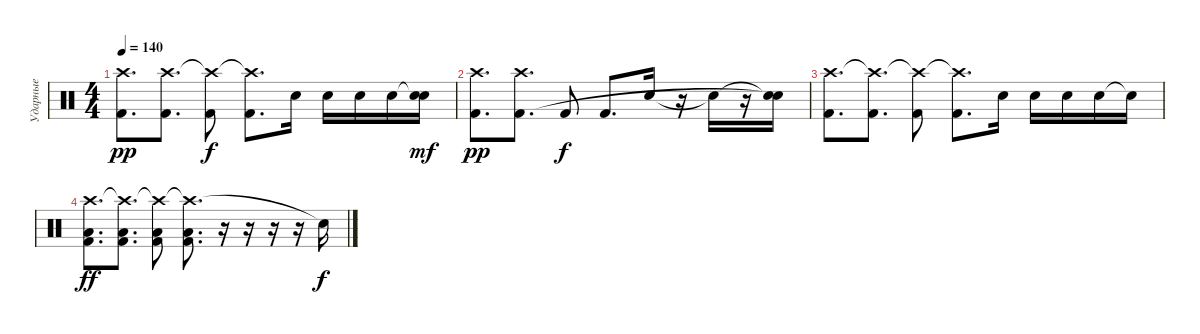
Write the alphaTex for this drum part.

\track ("Ударные" "Ударные") {instrument percussion}
\staff {score}
\articulation defaults
\ts (4 4)
\tempo 140
\clef neutral
\ks c
("Crash high (hit)" "Kick (hit) 2").8{d dy pp} ("Crash high (hit)" "Kick (hit) 2").8{d} ("Crash high (hit)"{t} "Kick (hit) 2").8{dy f} ("Crash high (hit)"{t} "Kick (hit) 2").8{d} "Electric Snare (hit)".16 "Electric Snare (hit)".16 "Electric Snare (hit)".16 "Electric Snare (hit)".16 ("Snare (hit)"{t} "Electric Snare (hit)").16{dy mf} |
("Crash high (hit)" "Kick (hit) 2").8{d dy pp} ("Crash high (hit)" "Kick (hit) 2").8{d} "Kick (hit) 2".8{dy f} "Kick (hit) 2".8{d} "Electric Snare (hit)".16 r.16 "Electric Snare (hit)"{t}.16 r.16 ("Snare (hit)"{t} "Electric Snare (hit)"{t}).16 |
("Crash high (hit)" "Kick (hit) 2").8{d} ("Crash high (hit)"{t} "Kick (hit) 2").8{d} ("Crash high (hit)"{t} "Kick (hit) 2").8 ("Crash high (hit)"{t} "Kick (hit) 2").8{d} "Electric Snare (hit)".16 "Electric Snare (hit)".16 "Electric Snare (hit)".16 "Electric Snare (hit)".16 "Snare (hit)"{t}.16 |
("Crash high (hit)" "Low Floor Tom (hit)" "Kick (hit) 2").8{d dy ff} ("Crash high (hit)"{t} "Low Floor Tom (hit)" "Kick (hit) 2").8{d} ("Crash high (hit)"{t} "Low Floor Tom (hit)" "Kick (hit) 2").8 ("Crash high (hit)"{t} "Kick (hit) 2" "Low Floor Tom (hit)").8{d} r.16 r.16 r.16 r.16 "Snare (hit)"{t}.16{dy f}
